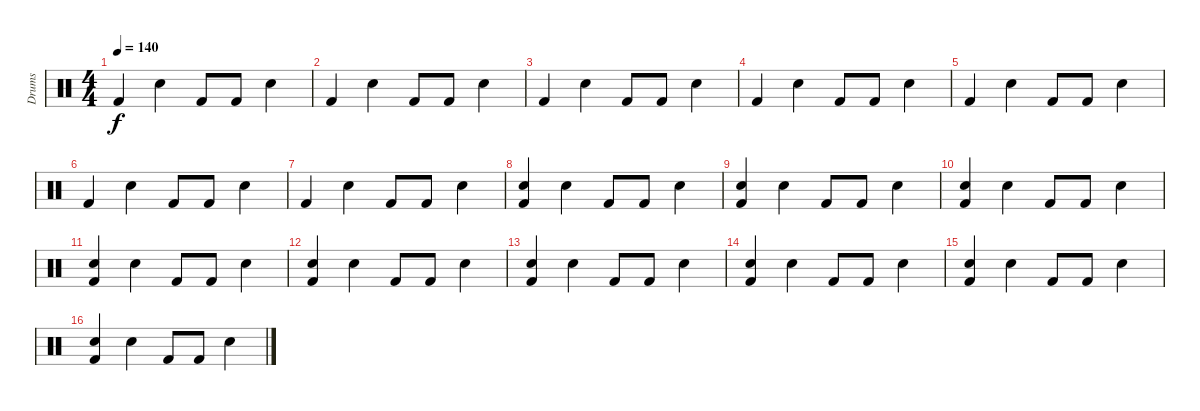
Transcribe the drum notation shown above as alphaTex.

\track ("Drums" "Drums") {instrument percussion}
\staff {score}
\articulation defaults
\ts (4 4)
\tempo 140
\clef neutral
\ks c "Kick (hit) 2".4{dy f} "Snare (hit) 2".4 "Kick (hit) 2".8 "Kick (hit) 2".8 "Snare (hit) 2".4
|
"Kick (hit) 2".4 "Snare (hit) 2".4 "Kick (hit) 2".8 "Kick (hit) 2".8 "Snare (hit) 2".4 |
"Kick (hit) 2".4 "Snare (hit) 2".4 "Kick (hit) 2".8 "Kick (hit) 2".8 "Snare (hit) 2".4 |
"Kick (hit) 2".4 "Snare (hit) 2".4 "Kick (hit) 2".8 "Kick (hit) 2".8 "Snare (hit) 2".4 |
"Kick (hit) 2".4 "Snare (hit) 2".4 "Kick (hit) 2".8 "Kick (hit) 2".8 "Snare (hit) 2".4 |
"Kick (hit) 2".4 "Snare (hit) 2".4 "Kick (hit) 2".8 "Kick (hit) 2".8 "Snare (hit) 2".4 |
"Kick (hit) 2".4 "Snare (hit) 2".4 "Kick (hit) 2".8 "Kick (hit) 2".8 "Snare (hit) 2".4 |
("Kick (hit) 2" "Snare (hit) 2").4 "Snare (hit) 2".4 "Kick (hit) 2".8 "Kick (hit) 2".8 "Snare (hit) 2".4 |
("Kick (hit) 2" "Snare (hit) 2").4 "Snare (hit) 2".4 "Kick (hit) 2".8 "Kick (hit) 2".8 "Snare (hit) 2".4 |
("Kick (hit) 2" "Snare (hit) 2").4 "Snare (hit) 2".4 "Kick (hit) 2".8 "Kick (hit) 2".8 "Snare (hit) 2".4 |
("Kick (hit) 2" "Snare (hit) 2").4 "Snare (hit) 2".4 "Kick (hit) 2".8 "Kick (hit) 2".8 "Snare (hit) 2".4 |
("Kick (hit) 2" "Snare (hit) 2").4 "Snare (hit) 2".4 "Kick (hit) 2".8 "Kick (hit) 2".8 "Snare (hit) 2".4 |
("Kick (hit) 2" "Snare (hit) 2").4 "Snare (hit) 2".4 "Kick (hit) 2".8 "Kick (hit) 2".8 "Snare (hit) 2".4 |
("Kick (hit) 2" "Snare (hit) 2").4 "Snare (hit) 2".4 "Kick (hit) 2".8 "Kick (hit) 2".8 "Snare (hit) 2".4 |
("Kick (hit) 2" "Snare (hit) 2").4 "Snare (hit) 2".4 "Kick (hit) 2".8 "Kick (hit) 2".8 "Snare (hit) 2".4 |
("Kick (hit) 2" "Snare (hit) 2").4 "Snare (hit) 2".4 "Kick (hit) 2".8 "Kick (hit) 2".8 "Snare (hit) 2".4
